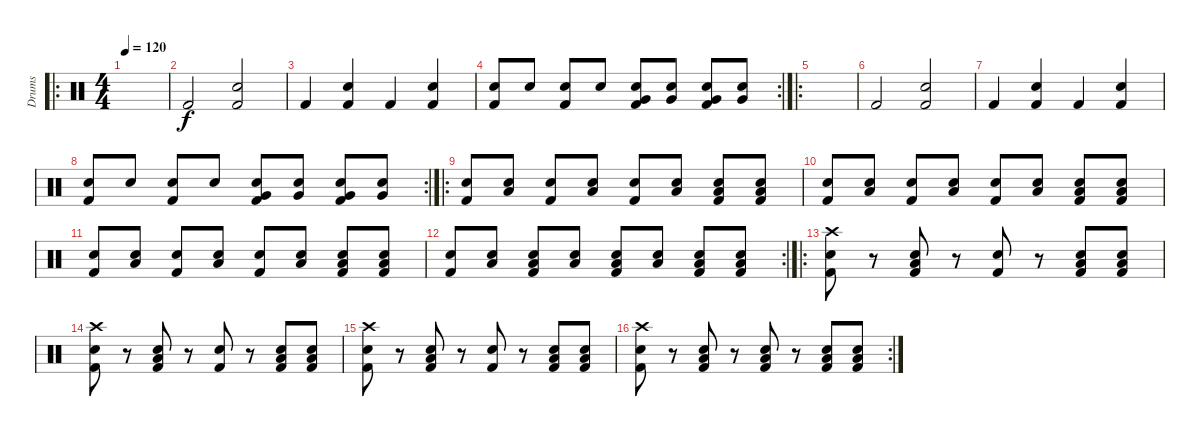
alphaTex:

\track ("Drums" "Drums") {instrument percussion}
\staff {score}
\articulation defaults
\ro
\ts (4 4)
\tempo 120
\clef neutral
\ks c
|
"Kick (hit) 2".2 ("Electric Snare (hit)" "Kick (hit) 2").2 |
"Kick (hit) 2".4 ("Electric Snare (hit)" "Kick (hit) 2").4 "Kick (hit) 2".4 ("Electric Snare (hit)" "Kick (hit) 2").4 |
\rc 2
("Electric Snare (hit)" "Kick (hit) 2").8 "Electric Snare (hit)".8 ("Electric Snare (hit)" "Kick (hit) 2").8 "Electric Snare (hit)".8 ("Electric Snare (hit)" "Very Low Tom (hit)" "Kick (hit) 2").8 ("Electric Snare (hit)" "Very Low Tom (hit)").8 ("Electric Snare (hit)" "Very Low Tom (hit)" "Kick (hit) 2").8 ("Electric Snare (hit)" "Very Low Tom (hit)").8 |
\ro
|
"Kick (hit) 2".2 ("Electric Snare (hit)" "Kick (hit) 2").2 |
"Kick (hit) 2".4 ("Electric Snare (hit)" "Kick (hit) 2").4 "Kick (hit) 2".4 ("Electric Snare (hit)" "Kick (hit) 2").4 |
\rc 2
("Electric Snare (hit)" "Kick (hit) 2").8 "Electric Snare (hit)".8 ("Electric Snare (hit)" "Kick (hit) 2").8 "Electric Snare (hit)".8 ("Electric Snare (hit)" "Very Low Tom (hit)" "Kick (hit) 2").8 ("Electric Snare (hit)" "Very Low Tom (hit)").8 ("Electric Snare (hit)" "Very Low Tom (hit)" "Kick (hit) 2").8 ("Electric Snare (hit)" "Very Low Tom (hit)").8 |
\ro
("Electric Snare (hit)" "Kick (hit) 2").8 ("Electric Snare (hit)" "Low Tom (hit)").8 ("Electric Snare (hit)" "Kick (hit) 2").8 ("Electric Snare (hit)" "Low Tom (hit)").8 ("Electric Snare (hit)" "Kick (hit) 2").8 ("Electric Snare (hit)" "Low Tom (hit)").8 ("Electric Snare (hit)" "Low Tom (hit)" "Kick (hit) 2").8 ("Electric Snare (hit)" "Low Tom (hit)" "Kick (hit) 2").8 |
("Electric Snare (hit)" "Kick (hit) 2").8 ("Electric Snare (hit)" "Low Tom (hit)").8 ("Electric Snare (hit)" "Kick (hit) 2").8 ("Electric Snare (hit)" "Low Tom (hit)").8 ("Electric Snare (hit)" "Kick (hit) 2").8 ("Electric Snare (hit)" "Low Tom (hit)").8 ("Electric Snare (hit)" "Low Tom (hit)" "Kick (hit) 2").8 ("Electric Snare (hit)" "Low Tom (hit)" "Kick (hit) 2").8 |
("Electric Snare (hit)" "Kick (hit) 2").8 ("Electric Snare (hit)" "Low Tom (hit)").8 ("Electric Snare (hit)" "Kick (hit) 2").8 ("Electric Snare (hit)" "Low Tom (hit)").8 ("Electric Snare (hit)" "Kick (hit) 2").8 ("Electric Snare (hit)" "Low Tom (hit)").8 ("Electric Snare (hit)" "Low Tom (hit)" "Kick (hit) 2").8 ("Electric Snare (hit)" "Low Tom (hit)" "Kick (hit) 2").8 |
\rc 2
("Electric Snare (hit)" "Kick (hit) 2").8 ("Electric Snare (hit)" "Low Tom (hit)").8 ("Electric Snare (hit)" "Low Tom (hit)" "Kick (hit) 2").8 ("Electric Snare (hit)" "Low Tom (hit)").8 ("Electric Snare (hit)" "Low Tom (hit)" "Kick (hit) 2").8 ("Electric Snare (hit)" "Low Tom (hit)").8 ("Electric Snare (hit)" "Low Tom (hit)" "Kick (hit) 2").8 ("Electric Snare (hit)" "Low Tom (hit)" "Kick (hit) 2").8 |
\ro
("Electric Snare (hit)" "Crash high (hit)" "Kick (hit) 2").8 r.8 ("Electric Snare (hit)" "Low Tom (hit)" "Kick (hit) 2").8 r.8 ("Electric Snare (hit)" "Kick (hit) 2").8 r.8 ("Electric Snare (hit)" "Low Tom (hit)" "Kick (hit) 2").8 ("Electric Snare (hit)" "Low Tom (hit)" "Kick (hit) 2").8 |
("Electric Snare (hit)" "Crash high (hit)" "Kick (hit) 2").8 r.8 ("Electric Snare (hit)" "Low Tom (hit)" "Kick (hit) 2").8 r.8 ("Electric Snare (hit)" "Kick (hit) 2").8 r.8 ("Electric Snare (hit)" "Low Tom (hit)" "Kick (hit) 2").8 ("Electric Snare (hit)" "Low Tom (hit)" "Kick (hit) 2").8 |
("Electric Snare (hit)" "Crash high (hit)" "Kick (hit) 2").8 r.8 ("Electric Snare (hit)" "Low Tom (hit)" "Kick (hit) 2").8 r.8 ("Electric Snare (hit)" "Kick (hit) 2").8 r.8 ("Electric Snare (hit)" "Low Tom (hit)" "Kick (hit) 2").8 ("Electric Snare (hit)" "Low Tom (hit)" "Kick (hit) 2").8 |
\rc 2
("Electric Snare (hit)" "Crash high (hit)" "Kick (hit) 2").8 r.8 ("Electric Snare (hit)" "Low Tom (hit)" "Kick (hit) 2").8 r.8 ("Electric Snare (hit)" "Low Tom (hit)" "Kick (hit) 2").8 r.8 ("Electric Snare (hit)" "Low Tom (hit)" "Kick (hit) 2").8 ("Electric Snare (hit)" "Low Tom (hit)" "Kick (hit) 2").8
